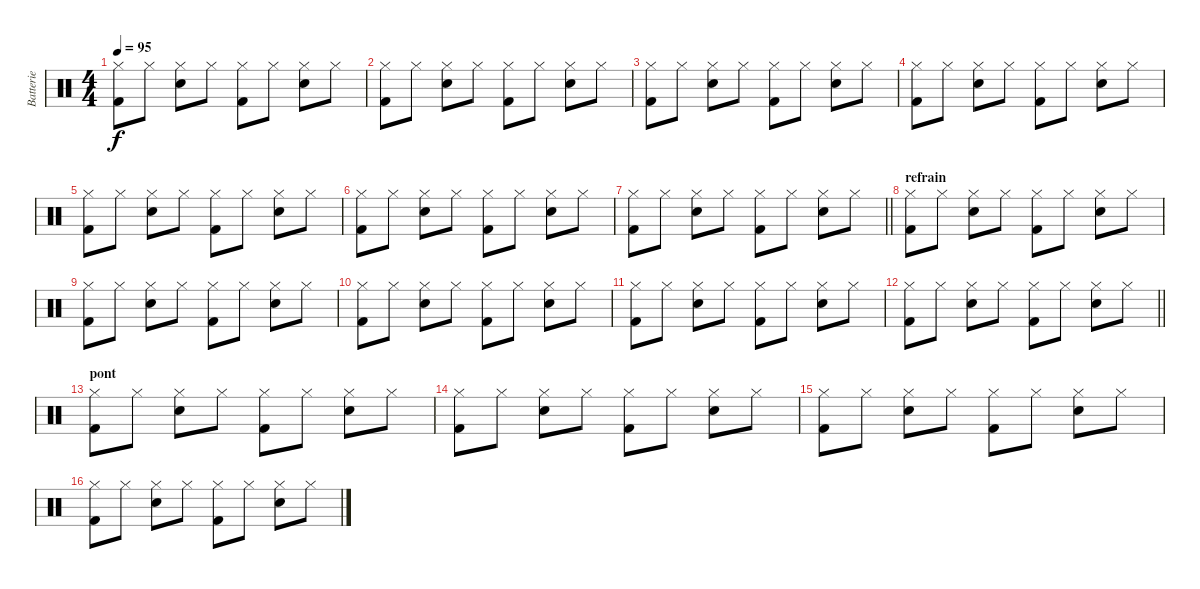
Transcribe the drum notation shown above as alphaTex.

\track ("Batterie" "Batterie") {instrument percussion}
\staff {score}
\articulation defaults
\ts (4 4)
\tempo 95
\clef neutral
\ks c
("Hi-Hat (closed)" "Kick (hit) 2").8{dy f} "Hi-Hat (closed)".8 ("Hi-Hat (closed)" "Electric Snare (hit)").8 "Hi-Hat (closed)".8 ("Hi-Hat (closed)" "Kick (hit) 2").8 "Hi-Hat (closed)".8 ("Hi-Hat (closed)" "Electric Snare (hit)").8 "Hi-Hat (closed)".8 |
("Hi-Hat (closed)" "Kick (hit) 2").8 "Hi-Hat (closed)".8 ("Hi-Hat (closed)" "Electric Snare (hit)").8 "Hi-Hat (closed)".8 ("Hi-Hat (closed)" "Kick (hit) 2").8 "Hi-Hat (closed)".8 ("Hi-Hat (closed)" "Electric Snare (hit)").8 "Hi-Hat (closed)".8 |
("Hi-Hat (closed)" "Kick (hit) 2").8 "Hi-Hat (closed)".8 ("Hi-Hat (closed)" "Electric Snare (hit)").8 "Hi-Hat (closed)".8 ("Hi-Hat (closed)" "Kick (hit) 2").8 "Hi-Hat (closed)".8 ("Hi-Hat (closed)" "Electric Snare (hit)").8 "Hi-Hat (closed)".8 |
("Hi-Hat (closed)" "Kick (hit) 2").8 "Hi-Hat (closed)".8 ("Hi-Hat (closed)" "Electric Snare (hit)").8 "Hi-Hat (closed)".8 ("Hi-Hat (closed)" "Kick (hit) 2").8 "Hi-Hat (closed)".8 ("Hi-Hat (closed)" "Electric Snare (hit)").8 "Hi-Hat (closed)".8 |
("Hi-Hat (closed)" "Kick (hit) 2").8 "Hi-Hat (closed)".8 ("Hi-Hat (closed)" "Electric Snare (hit)").8 "Hi-Hat (closed)".8 ("Hi-Hat (closed)" "Kick (hit) 2").8 "Hi-Hat (closed)".8 ("Hi-Hat (closed)" "Electric Snare (hit)").8 "Hi-Hat (closed)".8 |
("Hi-Hat (closed)" "Kick (hit) 2").8 "Hi-Hat (closed)".8 ("Hi-Hat (closed)" "Electric Snare (hit)").8 "Hi-Hat (closed)".8 ("Hi-Hat (closed)" "Kick (hit) 2").8 "Hi-Hat (closed)".8 ("Hi-Hat (closed)" "Electric Snare (hit)").8 "Hi-Hat (closed)".8 |
\barLineRight lightlight
("Hi-Hat (closed)" "Kick (hit) 2").8 "Hi-Hat (closed)".8 ("Hi-Hat (closed)" "Electric Snare (hit)").8 "Hi-Hat (closed)".8 ("Hi-Hat (closed)" "Kick (hit) 2").8 "Hi-Hat (closed)".8 ("Hi-Hat (closed)" "Electric Snare (hit)").8 "Hi-Hat (closed)".8 |
\section ("" "refrain")
("Hi-Hat (closed)" "Kick (hit) 2").8 "Hi-Hat (closed)".8 ("Hi-Hat (closed)" "Electric Snare (hit)").8 "Hi-Hat (closed)".8 ("Hi-Hat (closed)" "Kick (hit) 2").8 "Hi-Hat (closed)".8 ("Hi-Hat (closed)" "Electric Snare (hit)").8 "Hi-Hat (closed)".8 |
("Hi-Hat (closed)" "Kick (hit) 2").8 "Hi-Hat (closed)".8 ("Hi-Hat (closed)" "Electric Snare (hit)").8 "Hi-Hat (closed)".8 ("Hi-Hat (closed)" "Kick (hit) 2").8 "Hi-Hat (closed)".8 ("Hi-Hat (closed)" "Electric Snare (hit)").8 "Hi-Hat (closed)".8 |
("Hi-Hat (closed)" "Kick (hit) 2").8 "Hi-Hat (closed)".8 ("Hi-Hat (closed)" "Electric Snare (hit)").8 "Hi-Hat (closed)".8 ("Hi-Hat (closed)" "Kick (hit) 2").8 "Hi-Hat (closed)".8 ("Hi-Hat (closed)" "Electric Snare (hit)").8 "Hi-Hat (closed)".8 |
("Hi-Hat (closed)" "Kick (hit) 2").8 "Hi-Hat (closed)".8 ("Hi-Hat (closed)" "Electric Snare (hit)").8 "Hi-Hat (closed)".8 ("Hi-Hat (closed)" "Kick (hit) 2").8 "Hi-Hat (closed)".8 ("Hi-Hat (closed)" "Electric Snare (hit)").8 "Hi-Hat (closed)".8 |
\barLineRight lightlight
("Hi-Hat (closed)" "Kick (hit) 2").8 "Hi-Hat (closed)".8 ("Hi-Hat (closed)" "Electric Snare (hit)").8 "Hi-Hat (closed)".8 ("Hi-Hat (closed)" "Kick (hit) 2").8 "Hi-Hat (closed)".8 ("Hi-Hat (closed)" "Electric Snare (hit)").8 "Hi-Hat (closed)".8 |
\section ("" "pont")
("Hi-Hat (closed)" "Kick (hit) 2").8 "Hi-Hat (closed)".8 ("Hi-Hat (closed)" "Electric Snare (hit)").8 "Hi-Hat (closed)".8 ("Hi-Hat (closed)" "Kick (hit) 2").8 "Hi-Hat (closed)".8 ("Hi-Hat (closed)" "Electric Snare (hit)").8 "Hi-Hat (closed)".8 |
("Hi-Hat (closed)" "Kick (hit) 2").8 "Hi-Hat (closed)".8 ("Hi-Hat (closed)" "Electric Snare (hit)").8 "Hi-Hat (closed)".8 ("Hi-Hat (closed)" "Kick (hit) 2").8 "Hi-Hat (closed)".8 ("Hi-Hat (closed)" "Electric Snare (hit)").8 "Hi-Hat (closed)".8 |
("Hi-Hat (closed)" "Kick (hit) 2").8 "Hi-Hat (closed)".8 ("Hi-Hat (closed)" "Electric Snare (hit)").8 "Hi-Hat (closed)".8 ("Hi-Hat (closed)" "Kick (hit) 2").8 "Hi-Hat (closed)".8 ("Hi-Hat (closed)" "Electric Snare (hit)").8 "Hi-Hat (closed)".8 |
("Hi-Hat (closed)" "Kick (hit) 2").8 "Hi-Hat (closed)".8 ("Hi-Hat (closed)" "Electric Snare (hit)").8 "Hi-Hat (closed)".8 ("Hi-Hat (closed)" "Kick (hit) 2").8 "Hi-Hat (closed)".8 ("Hi-Hat (closed)" "Electric Snare (hit)").8 "Hi-Hat (closed)".8
